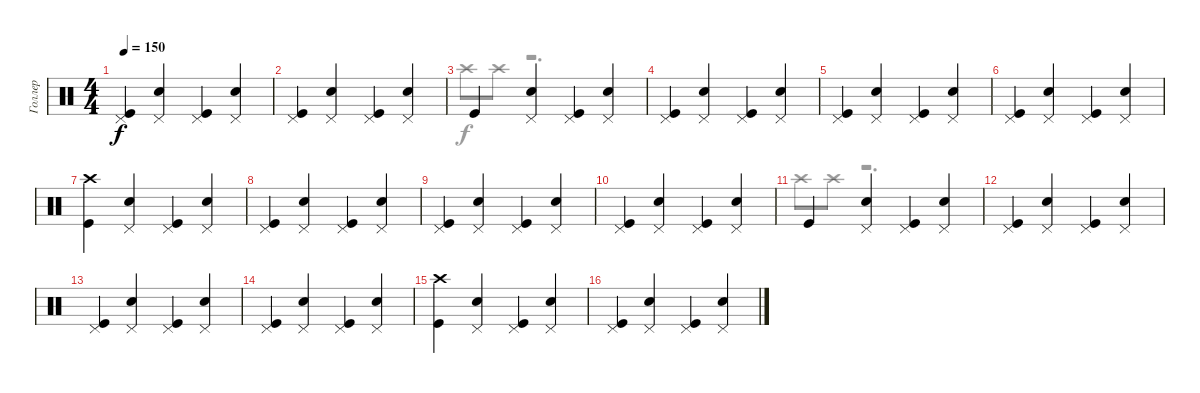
\track ("Голлер" "Голлер") {instrument percussion}
\staff {score}
\articulation defaults
\voice
\ts (4 4)
\tempo 150
\clef neutral
\ks c
("Pedal Hi-Hat (hit)" "Kick (hit)").4{dy f} ("Pedal Hi-Hat (hit)" "Snare (hit) 2").4 ("Pedal Hi-Hat (hit)" "Kick (hit)").4 ("Pedal Hi-Hat (hit)" "Snare (hit) 2").4 |
("Pedal Hi-Hat (hit)" "Kick (hit)").4 ("Pedal Hi-Hat (hit)" "Snare (hit) 2").4 ("Pedal Hi-Hat (hit)" "Kick (hit)").4 ("Pedal Hi-Hat (hit)" "Snare (hit) 2").4 |
"Kick (hit)".4 ("Pedal Hi-Hat (hit)" "Snare (hit) 2").4 ("Pedal Hi-Hat (hit)" "Kick (hit)").4 ("Pedal Hi-Hat (hit)" "Snare (hit) 2").4 |
("Pedal Hi-Hat (hit)" "Kick (hit)").4 ("Pedal Hi-Hat (hit)" "Snare (hit) 2").4 ("Pedal Hi-Hat (hit)" "Kick (hit)").4 ("Pedal Hi-Hat (hit)" "Snare (hit) 2").4 |
("Pedal Hi-Hat (hit)" "Kick (hit)").4 ("Pedal Hi-Hat (hit)" "Snare (hit) 2").4 ("Pedal Hi-Hat (hit)" "Kick (hit)").4 ("Pedal Hi-Hat (hit)" "Snare (hit) 2").4 |
("Pedal Hi-Hat (hit)" "Kick (hit)").4 ("Pedal Hi-Hat (hit)" "Snare (hit) 2").4 ("Pedal Hi-Hat (hit)" "Kick (hit)").4 ("Pedal Hi-Hat (hit)" "Snare (hit) 2").4 |
("Crash high (hit)" "Kick (hit)").4 ("Pedal Hi-Hat (hit)" "Snare (hit) 2").4 ("Pedal Hi-Hat (hit)" "Kick (hit)").4 ("Pedal Hi-Hat (hit)" "Snare (hit) 2").4 |
("Pedal Hi-Hat (hit)" "Kick (hit)").4 ("Pedal Hi-Hat (hit)" "Snare (hit) 2").4 ("Pedal Hi-Hat (hit)" "Kick (hit)").4 ("Pedal Hi-Hat (hit)" "Snare (hit) 2").4 |
("Pedal Hi-Hat (hit)" "Kick (hit)").4 ("Pedal Hi-Hat (hit)" "Snare (hit) 2").4 ("Pedal Hi-Hat (hit)" "Kick (hit)").4 ("Pedal Hi-Hat (hit)" "Snare (hit) 2").4 |
("Pedal Hi-Hat (hit)" "Kick (hit)").4 ("Pedal Hi-Hat (hit)" "Snare (hit) 2").4 ("Pedal Hi-Hat (hit)" "Kick (hit)").4 ("Pedal Hi-Hat (hit)" "Snare (hit) 2").4 |
"Kick (hit)".4 ("Pedal Hi-Hat (hit)" "Snare (hit) 2").4 ("Pedal Hi-Hat (hit)" "Kick (hit)").4 ("Pedal Hi-Hat (hit)" "Snare (hit) 2").4 |
("Pedal Hi-Hat (hit)" "Kick (hit)").4 ("Pedal Hi-Hat (hit)" "Snare (hit) 2").4 ("Pedal Hi-Hat (hit)" "Kick (hit)").4 ("Pedal Hi-Hat (hit)" "Snare (hit) 2").4 |
("Pedal Hi-Hat (hit)" "Kick (hit)").4 ("Pedal Hi-Hat (hit)" "Snare (hit) 2").4 ("Pedal Hi-Hat (hit)" "Kick (hit)").4 ("Pedal Hi-Hat (hit)" "Snare (hit) 2").4 |
("Pedal Hi-Hat (hit)" "Kick (hit)").4 ("Pedal Hi-Hat (hit)" "Snare (hit) 2").4 ("Pedal Hi-Hat (hit)" "Kick (hit)").4 ("Pedal Hi-Hat (hit)" "Snare (hit) 2").4 |
("Crash high (hit)" "Kick (hit)").4 ("Pedal Hi-Hat (hit)" "Snare (hit) 2").4 ("Pedal Hi-Hat (hit)" "Kick (hit)").4 ("Pedal Hi-Hat (hit)" "Snare (hit) 2").4 |
("Pedal Hi-Hat (hit)" "Kick (hit)").4 ("Pedal Hi-Hat (hit)" "Snare (hit) 2").4 ("Pedal Hi-Hat (hit)" "Kick (hit)").4 ("Pedal Hi-Hat (hit)" "Snare (hit) 2").4
\voice
\clef neutral
\ottava regular
\simile none
\ks c
|
|
"Crash high (hit)".8 "Crash high (hit)".8 r.2{d} |
|
|
|
|
|
|
|
"Crash high (hit)".8 "Crash high (hit)".8 r.2{d} |
|
|
|
|
